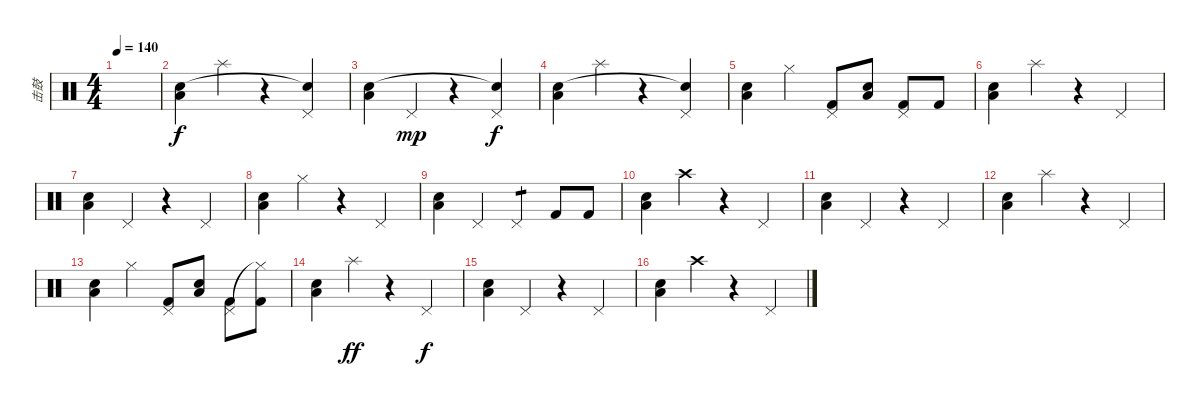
\track ("击鼓" "击鼓") {instrument percussion}
\staff {score}
\articulation defaults
\ts (4 4)
\tempo 140
\clef neutral
\ks c
|
("Low Floor Tom (hit)" "Snare (hit) 2").4 "Splash (hit)".4 r.4 ("Pedal Hi-Hat (hit)" "Snare (hit)"{t}).4 |
("Low Floor Tom (hit)" "Snare (hit) 2").4 "Pedal Hi-Hat (hit)".4{dy mp} r.4 ("Pedal Hi-Hat (hit)" "Snare (hit)"{t}).4{dy f} |
("Low Floor Tom (hit)" "Snare (hit) 2").4 "Splash (hit)".4 r.4 ("Pedal Hi-Hat (hit)" "Snare (hit)"{t}).4 |
("Low Floor Tom (hit)" "Snare (hit) 2").4 "Hi-Hat (closed)".4 ("Pedal Hi-Hat (hit)" "Kick (hit) 2").8 ("Low Floor Tom (hit)" "Snare (hit) 2").8 ("Pedal Hi-Hat (hit)" "Kick (hit) 2").8 "Kick (hit) 2".8 |
("Low Floor Tom (hit)" "Snare (hit) 2").4 "Splash (hit)".4 r.4 "Pedal Hi-Hat (hit)".4 |
("Low Floor Tom (hit)" "Snare (hit) 2").4 "Pedal Hi-Hat (hit)".4 r.4 "Pedal Hi-Hat (hit)".4 |
("Low Floor Tom (hit)" "Snare (hit) 2").4 "Hi-Hat (closed)".4 r.4 "Pedal Hi-Hat (hit)".4 |
("Low Floor Tom (hit)" "Snare (hit) 2").4 "Pedal Hi-Hat (hit)".4 "Pedal Hi-Hat (hit)".4{tp 1} "Kick (hit) 2".8 "Kick (hit) 2".8 |
("Low Floor Tom (hit)" "Snare (hit) 2").4 "Crash high (hit)".4 r.4 "Pedal Hi-Hat (hit)".4 |
("Low Floor Tom (hit)" "Snare (hit) 2").4 "Pedal Hi-Hat (hit)".4 r.4 "Pedal Hi-Hat (hit)".4 |
("Low Floor Tom (hit)" "Snare (hit) 2").4 "Splash (hit)".4 r.4 "Pedal Hi-Hat (hit)".4 |
("Low Floor Tom (hit)" "Snare (hit) 2").4 "Hi-Hat (closed)".4 ("Pedal Hi-Hat (hit)" "Kick (hit) 2").8 ("Low Floor Tom (hit)" "Snare (hit) 2").8 ("Pedal Hi-Hat (hit)" "Kick (hit) 2").8 ("Hi-Hat (closed)"{t} "Kick (hit) 2").8 |
("Low Floor Tom (hit)" "Snare (hit) 2").4 "Splash (hit)".4{dy ff} r.4 "Pedal Hi-Hat (hit)".4{dy f} |
("Low Floor Tom (hit)" "Snare (hit) 2").4 "Pedal Hi-Hat (hit)".4 r.4 "Pedal Hi-Hat (hit)".4 |
("Low Floor Tom (hit)" "Snare (hit) 2").4 "Crash high (hit)".4 r.4 "Pedal Hi-Hat (hit)".4
